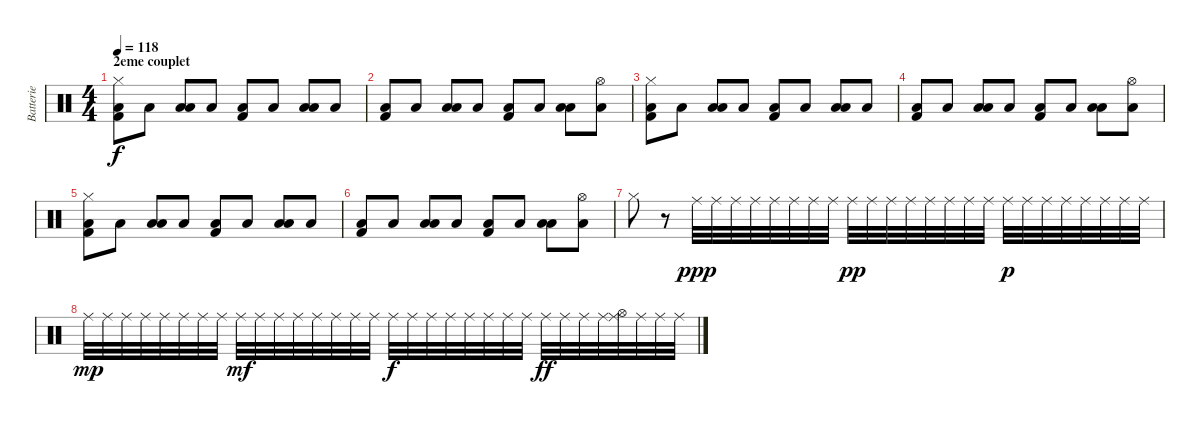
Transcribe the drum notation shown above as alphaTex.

\track ("Batterie" "Batterie") {instrument percussion}
\staff {score}
\articulation defaults
\ts (4 4)
\section ("" "2eme couplet")
\tempo 118
\clef neutral
\ks c
("Hi-Hat (closed)" "Low Floor Tom (hit)" "Kick (hit) 2").8{dy f} "Low Floor Tom (hit)".8 ("Low Tom (hit)" "Low Floor Tom (hit)").8 "Low Floor Tom (hit)".8 ("Low Floor Tom (hit)" "Kick (hit) 2").8 "Low Floor Tom (hit)".8 ("Low Tom (hit)" "Low Floor Tom (hit)").8 "Low Floor Tom (hit)".8 |
("Low Floor Tom (hit)" "Kick (hit) 2").8 "Low Floor Tom (hit)".8 ("Low Tom (hit)" "Low Floor Tom (hit)").8 "Low Floor Tom (hit)".8 ("Low Floor Tom (hit)" "Kick (hit) 2").8 "Low Floor Tom (hit)".8 ("Low Tom (hit)" "Low Floor Tom (hit)").8 ("Hi-Hat (open)" "Low Floor Tom (hit)").8 |
("Hi-Hat (closed)" "Low Floor Tom (hit)" "Kick (hit) 2").8 "Low Floor Tom (hit)".8 ("Low Tom (hit)" "Low Floor Tom (hit)").8 "Low Floor Tom (hit)".8 ("Low Floor Tom (hit)" "Kick (hit) 2").8 "Low Floor Tom (hit)".8 ("Low Tom (hit)" "Low Floor Tom (hit)").8 "Low Floor Tom (hit)".8 |
("Low Floor Tom (hit)" "Kick (hit) 2").8 "Low Floor Tom (hit)".8 ("Low Tom (hit)" "Low Floor Tom (hit)").8 "Low Floor Tom (hit)".8 ("Low Floor Tom (hit)" "Kick (hit) 2").8 "Low Floor Tom (hit)".8 ("Low Tom (hit)" "Low Floor Tom (hit)").8 ("Hi-Hat (open)" "Low Floor Tom (hit)").8 |
("Hi-Hat (closed)" "Low Floor Tom (hit)" "Kick (hit) 2").8 "Low Floor Tom (hit)".8 ("Low Tom (hit)" "Low Floor Tom (hit)").8 "Low Floor Tom (hit)".8 ("Low Floor Tom (hit)" "Kick (hit) 2").8 "Low Floor Tom (hit)".8 ("Low Tom (hit)" "Low Floor Tom (hit)").8 "Low Floor Tom (hit)".8 |
("Low Floor Tom (hit)" "Kick (hit) 2").8 "Low Floor Tom (hit)".8 ("Low Tom (hit)" "Low Floor Tom (hit)").8 "Low Floor Tom (hit)".8 ("Low Floor Tom (hit)" "Kick (hit) 2").8 "Low Floor Tom (hit)".8 ("Low Tom (hit)" "Low Floor Tom (hit)").8 ("Hi-Hat (open)" "Low Floor Tom (hit)").8 |
"Hi-Hat (closed)".8 r.8 "Ride (middle)".32{dy ppp} "Ride (middle)".32 "Ride (middle)".32 "Ride (middle)".32 "Ride (middle)".32 "Ride (middle)".32 "Ride (middle)".32 "Ride (middle)".32 "Ride (middle)".32{dy pp} "Ride (middle)".32 "Ride (middle)".32 "Ride (middle)".32 "Ride (middle)".32 "Ride (middle)".32 "Ride (middle)".32 "Ride (middle)".32 "Ride (middle)".32{dy p} "Ride (middle)".32 "Ride (middle)".32 "Ride (middle)".32 "Ride (middle)".32 "Ride (middle)".32 "Ride (middle)".32 "Ride (middle)".32 |
"Ride (middle)".32{dy mp} "Ride (middle)".32 "Ride (middle)".32 "Ride (middle)".32 "Ride (middle)".32 "Ride (middle)".32 "Ride (middle)".32 "Ride (middle)".32 "Ride (middle)".32{dy mf} "Ride (middle)".32 "Ride (middle)".32 "Ride (middle)".32 "Ride (middle)".32 "Ride (middle)".32 "Ride (middle)".32 "Ride (middle)".32 "Ride (middle)".32{dy f} "Ride (middle)".32 "Ride (middle)".32 "Ride (middle)".32 "Ride (middle)".32 "Ride (middle)".32 "Ride (middle)".32 "Ride (middle)".32 "Ride (middle)".32{dy ff} "Ride (middle)".32 "Ride (middle)".32 "Ride (middle)".32 ("Ride (middle)" "Hi-Hat (open)").32 "Ride (middle)".32 "Ride (middle)".32 "Ride (middle)".32
